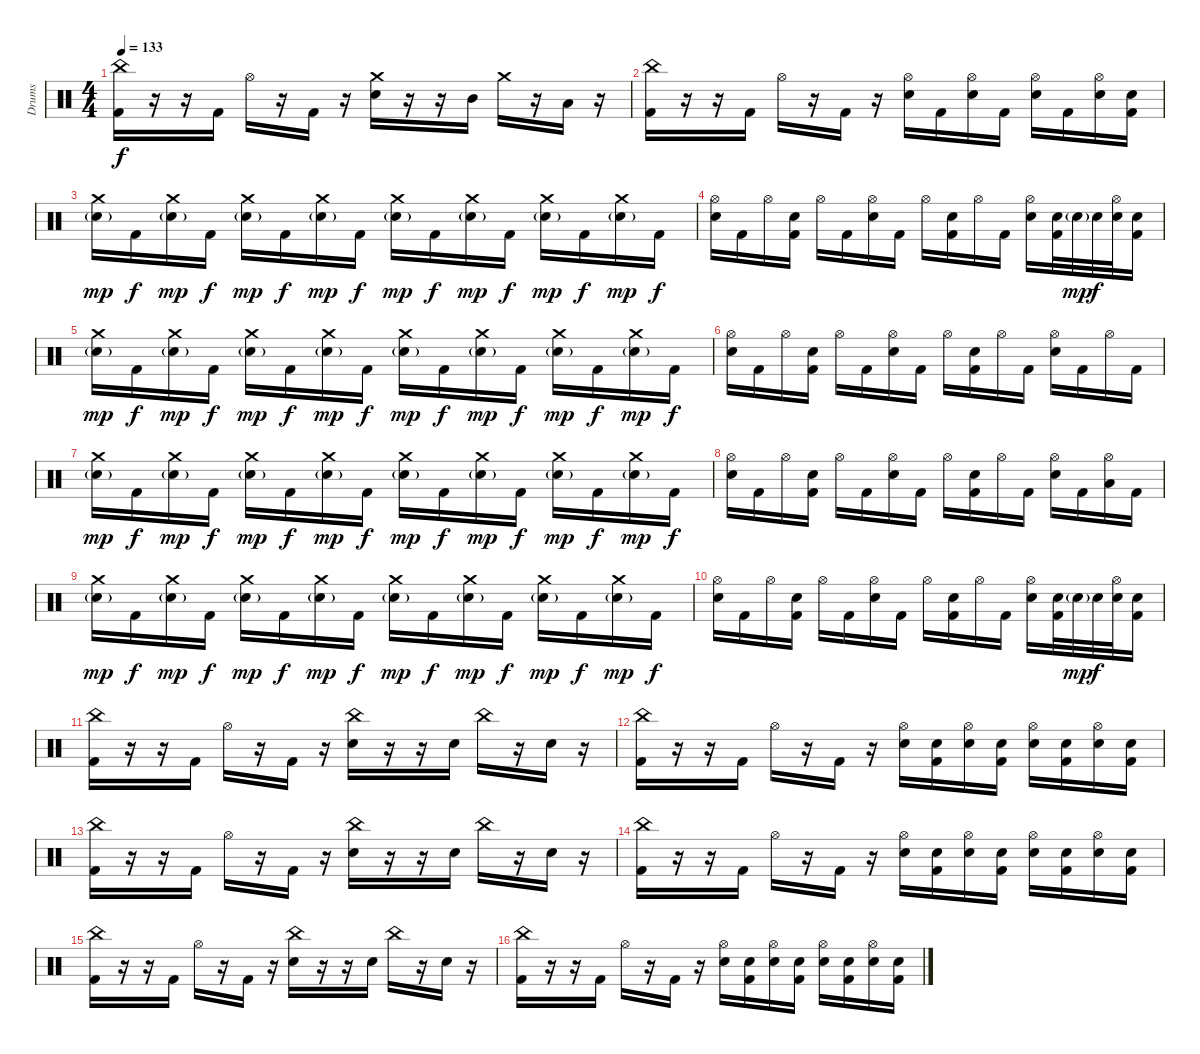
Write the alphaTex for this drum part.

\track ("Drums" "Drums") {instrument percussion}
\staff {score}
\articulation defaults
\ts (4 4)
\tempo 133
\clef neutral
\ks c
("China (hit)" "Kick (hit) 2").16{dy f} r.16 r.16 "Kick (hit) 2".16 "Hi-Hat (open)".16 r.16 "Kick (hit) 2".16 r.16 ("Crash medium (hit)" "Snare (hit) 2").16 r.16 r.16 "Mid Tom (hit)".16 "Crash medium (hit)".16 r.16 "Low Tom (hit)".16 r.16 |
("China (hit)" "Kick (hit) 2").16 r.16 r.16 "Kick (hit) 2".16 "Hi-Hat (open)".16 r.16 "Kick (hit) 2".16 r.16 ("Hi-Hat (open)" "Snare (hit) 2").16 "Kick (hit) 2".16 ("Hi-Hat (open)" "Snare (hit) 2").16 "Kick (hit) 2".16 ("Hi-Hat (open)" "Snare (hit) 2").16 "Kick (hit) 2".16 ("Hi-Hat (open)" "Snare (hit) 2").16 ("Snare (hit) 2" "Kick (hit) 2").16 |
("Crash medium (hit)" "Snare (hit) 2"{g}).16{dy mp} "Kick (hit) 2".16{dy f} ("Crash medium (hit)" "Snare (hit) 2"{g}).16{dy mp} "Kick (hit) 2".16{dy f} ("Crash medium (hit)" "Snare (hit) 2"{g}).16{dy mp} "Kick (hit) 2".16{dy f} ("Crash medium (hit)" "Snare (hit) 2"{g}).16{dy mp} "Kick (hit) 2".16{dy f} ("Crash medium (hit)" "Snare (hit) 2"{g}).16{dy mp} "Kick (hit) 2".16{dy f} ("Crash medium (hit)" "Snare (hit) 2"{g}).16{dy mp} "Kick (hit) 2".16{dy f} ("Crash medium (hit)" "Snare (hit) 2"{g}).16{dy mp} "Kick (hit) 2".16{dy f} ("Crash medium (hit)" "Snare (hit) 2"{g}).16{dy mp} "Kick (hit) 2".16{dy f} |
("Hi-Hat (open)" "Snare (hit) 2").16 "Kick (hit) 2".16 "Hi-Hat (open)".16 ("Snare (hit) 2" "Kick (hit) 2").16 "Hi-Hat (open)".16 "Kick (hit) 2".16 ("Hi-Hat (open)" "Snare (hit) 2").16 "Kick (hit) 2".16 "Hi-Hat (open)".16 ("Snare (hit) 2" "Kick (hit) 2").16 "Hi-Hat (open)".16 "Kick (hit) 2".16 ("Hi-Hat (open)" "Snare (hit) 2").16 ("Snare (hit) 2" "Kick (hit) 2").32 "Snare (hit) 2"{g}.32{dy mp} "Snare (hit) 2".32{dy f} ("Hi-Hat (open)" "Snare (hit) 2").32 ("Snare (hit) 2" "Kick (hit) 2").16 |
("Crash medium (hit)" "Snare (hit) 2"{g}).16{dy mp} "Kick (hit) 2".16{dy f} ("Crash medium (hit)" "Snare (hit) 2"{g}).16{dy mp} "Kick (hit) 2".16{dy f} ("Crash medium (hit)" "Snare (hit) 2"{g}).16{dy mp} "Kick (hit) 2".16{dy f} ("Crash medium (hit)" "Snare (hit) 2"{g}).16{dy mp} "Kick (hit) 2".16{dy f} ("Crash medium (hit)" "Snare (hit) 2"{g}).16{dy mp} "Kick (hit) 2".16{dy f} ("Crash medium (hit)" "Snare (hit) 2"{g}).16{dy mp} "Kick (hit) 2".16{dy f} ("Crash medium (hit)" "Snare (hit) 2"{g}).16{dy mp} "Kick (hit) 2".16{dy f} ("Crash medium (hit)" "Snare (hit) 2"{g}).16{dy mp} "Kick (hit) 2".16{dy f} |
("Hi-Hat (open)" "Snare (hit) 2").16 "Kick (hit) 2".16 "Hi-Hat (open)".16 ("Snare (hit) 2" "Kick (hit) 2").16 "Hi-Hat (open)".16 "Kick (hit) 2".16 ("Hi-Hat (open)" "Snare (hit) 2").16 "Kick (hit) 2".16 "Hi-Hat (open)".16 ("Snare (hit) 2" "Kick (hit) 2").16 "Hi-Hat (open)".16 "Kick (hit) 2".16 ("Hi-Hat (open)" "Snare (hit) 2").16 "Kick (hit) 2".16 "Hi-Hat (open)".16 "Kick (hit) 2".16 |
("Crash medium (hit)" "Snare (hit) 2"{g}).16{dy mp} "Kick (hit) 2".16{dy f} ("Crash medium (hit)" "Snare (hit) 2"{g}).16{dy mp} "Kick (hit) 2".16{dy f} ("Crash medium (hit)" "Snare (hit) 2"{g}).16{dy mp} "Kick (hit) 2".16{dy f} ("Crash medium (hit)" "Snare (hit) 2"{g}).16{dy mp} "Kick (hit) 2".16{dy f} ("Crash medium (hit)" "Snare (hit) 2"{g}).16{dy mp} "Kick (hit) 2".16{dy f} ("Crash medium (hit)" "Snare (hit) 2"{g}).16{dy mp} "Kick (hit) 2".16{dy f} ("Crash medium (hit)" "Snare (hit) 2"{g}).16{dy mp} "Kick (hit) 2".16{dy f} ("Crash medium (hit)" "Snare (hit) 2"{g}).16{dy mp} "Kick (hit) 2".16{dy f} |
("Hi-Hat (open)" "Snare (hit) 2").16 "Kick (hit) 2".16 "Hi-Hat (open)".16 ("Snare (hit) 2" "Kick (hit) 2").16 "Hi-Hat (open)".16 "Kick (hit) 2".16 ("Hi-Hat (open)" "Snare (hit) 2").16 "Kick (hit) 2".16 "Hi-Hat (open)".16 ("Snare (hit) 2" "Kick (hit) 2").16 "Hi-Hat (open)".16 "Kick (hit) 2".16 ("Hi-Hat (open)" "Snare (hit) 2").16 "Kick (hit) 2".16 ("Hi-Hat (open)" "Low Floor Tom (hit)").16 "Kick (hit) 2".16 |
("Crash medium (hit)" "Snare (hit) 2"{g}).16{dy mp} "Kick (hit) 2".16{dy f} ("Crash medium (hit)" "Snare (hit) 2"{g}).16{dy mp} "Kick (hit) 2".16{dy f} ("Crash medium (hit)" "Snare (hit) 2"{g}).16{dy mp} "Kick (hit) 2".16{dy f} ("Crash medium (hit)" "Snare (hit) 2"{g}).16{dy mp} "Kick (hit) 2".16{dy f} ("Crash medium (hit)" "Snare (hit) 2"{g}).16{dy mp} "Kick (hit) 2".16{dy f} ("Crash medium (hit)" "Snare (hit) 2"{g}).16{dy mp} "Kick (hit) 2".16{dy f} ("Crash medium (hit)" "Snare (hit) 2"{g}).16{dy mp} "Kick (hit) 2".16{dy f} ("Crash medium (hit)" "Snare (hit) 2"{g}).16{dy mp} "Kick (hit) 2".16{dy f} |
("Hi-Hat (open)" "Snare (hit) 2").16 "Kick (hit) 2".16 "Hi-Hat (open)".16 ("Snare (hit) 2" "Kick (hit) 2").16 "Hi-Hat (open)".16 "Kick (hit) 2".16 ("Hi-Hat (open)" "Snare (hit) 2").16 "Kick (hit) 2".16 "Hi-Hat (open)".16 ("Snare (hit) 2" "Kick (hit) 2").16 "Hi-Hat (open)".16 "Kick (hit) 2".16 ("Hi-Hat (open)" "Snare (hit) 2").16 ("Snare (hit) 2" "Kick (hit) 2").32 "Snare (hit) 2"{g}.32{dy mp} "Snare (hit) 2".32{dy f} ("Hi-Hat (open)" "Snare (hit) 2").32 ("Snare (hit) 2" "Kick (hit) 2").16 |
("China (hit)" "Kick (hit) 2").16 r.16 r.16 "Kick (hit) 2".16 "Hi-Hat (open)".16 r.16 "Kick (hit) 2".16 r.16 ("China (hit)" "Snare (hit) 2").16 r.16 r.16 "Snare (hit) 2".16 "China (hit)".16 r.16 "Snare (hit) 2".16 r.16 |
("China (hit)" "Kick (hit) 2").16 r.16 r.16 "Kick (hit) 2".16 "Hi-Hat (open)".16 r.16 "Kick (hit) 2".16 r.16 ("Hi-Hat (open)" "Snare (hit) 2").16 ("Snare (hit) 2" "Kick (hit) 2").16 ("Hi-Hat (open)" "Snare (hit) 2").16 ("Snare (hit) 2" "Kick (hit) 2").16 ("Hi-Hat (open)" "Snare (hit) 2").16 ("Snare (hit) 2" "Kick (hit) 2").16 ("Hi-Hat (open)" "Snare (hit) 2").16 ("Snare (hit) 2" "Kick (hit) 2").16 |
("China (hit)" "Kick (hit) 2").16 r.16 r.16 "Kick (hit) 2".16 "Hi-Hat (open)".16 r.16 "Kick (hit) 2".16 r.16 ("China (hit)" "Snare (hit) 2").16 r.16 r.16 "Snare (hit) 2".16 "China (hit)".16 r.16 "Snare (hit) 2".16 r.16 |
("China (hit)" "Kick (hit) 2").16 r.16 r.16 "Kick (hit) 2".16 "Hi-Hat (open)".16 r.16 "Kick (hit) 2".16 r.16 ("Hi-Hat (open)" "Snare (hit) 2").16 ("Snare (hit) 2" "Kick (hit) 2").16 ("Hi-Hat (open)" "Snare (hit) 2").16 ("Snare (hit) 2" "Kick (hit) 2").16 ("Hi-Hat (open)" "Snare (hit) 2").16 ("Snare (hit) 2" "Kick (hit) 2").16 ("Hi-Hat (open)" "Snare (hit) 2").16 ("Snare (hit) 2" "Kick (hit) 2").16 |
("China (hit)" "Kick (hit) 2").16 r.16 r.16 "Kick (hit) 2".16 "Hi-Hat (open)".16 r.16 "Kick (hit) 2".16 r.16 ("China (hit)" "Snare (hit) 2").16 r.16 r.16 "Snare (hit) 2".16 "China (hit)".16 r.16 "Snare (hit) 2".16 r.16 |
("China (hit)" "Kick (hit) 2").16 r.16 r.16 "Kick (hit) 2".16 "Hi-Hat (open)".16 r.16 "Kick (hit) 2".16 r.16 ("Hi-Hat (open)" "Snare (hit) 2").16 ("Snare (hit) 2" "Kick (hit) 2").16 ("Hi-Hat (open)" "Snare (hit) 2").16 ("Snare (hit) 2" "Kick (hit) 2").16 ("Hi-Hat (open)" "Snare (hit) 2").16 ("Snare (hit) 2" "Kick (hit) 2").16 ("Hi-Hat (open)" "Snare (hit) 2").16 ("Snare (hit) 2" "Kick (hit) 2").16
